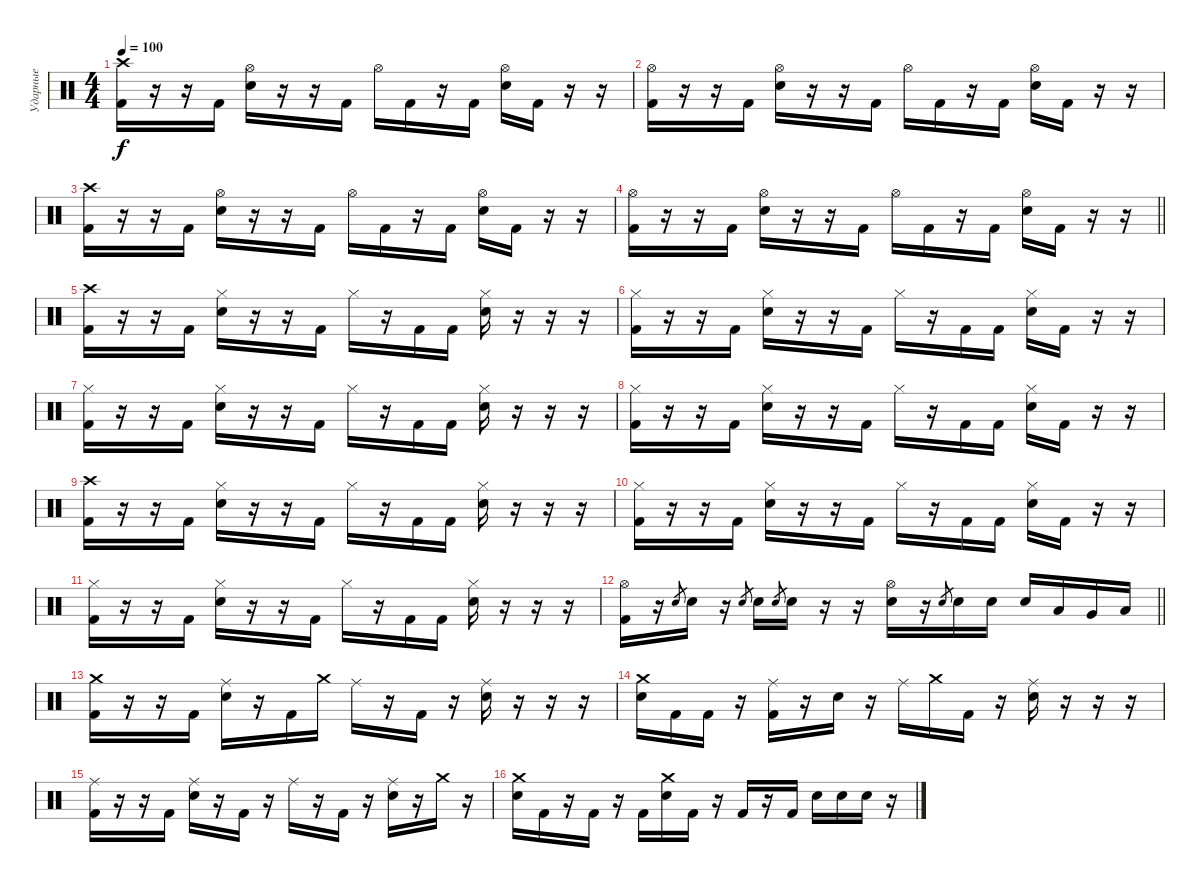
\track ("Ударные" "Ударные") {instrument percussion}
\staff {score}
\articulation defaults
\ts (4 4)
\tempo 100
\clef neutral
\ks c
("Crash high (hit)" "Kick (hit) 2").16{dy f} r.16 r.16 "Kick (hit) 2".16 ("Hi-Hat (open)" "Electric Snare (hit)").16 r.16 r.16 "Kick (hit) 2".16 "Hi-Hat (open)".16 "Kick (hit) 2".16 r.16 "Kick (hit) 2".16 ("Hi-Hat (open)" "Electric Snare (hit)").16 "Kick (hit) 2".16 r.16 r.16 |
("Hi-Hat (open)" "Kick (hit) 2").16 r.16 r.16 "Kick (hit) 2".16 ("Hi-Hat (open)" "Electric Snare (hit)").16 r.16 r.16 "Kick (hit) 2".16 "Hi-Hat (open)".16 "Kick (hit) 2".16 r.16 "Kick (hit) 2".16 ("Hi-Hat (open)" "Electric Snare (hit)").16 "Kick (hit) 2".16 r.16 r.16 |
("Crash high (hit)" "Kick (hit) 2").16 r.16 r.16 "Kick (hit) 2".16 ("Hi-Hat (open)" "Electric Snare (hit)").16 r.16 r.16 "Kick (hit) 2".16 "Hi-Hat (open)".16 "Kick (hit) 2".16 r.16 "Kick (hit) 2".16 ("Hi-Hat (open)" "Electric Snare (hit)").16 "Kick (hit) 2".16 r.16 r.16 |
\barLineRight lightlight
("Hi-Hat (open)" "Kick (hit) 2").16 r.16 r.16 "Kick (hit) 2".16 ("Hi-Hat (open)" "Electric Snare (hit)").16 r.16 r.16 "Kick (hit) 2".16 "Hi-Hat (open)".16 "Kick (hit) 2".16 r.16 "Kick (hit) 2".16 ("Hi-Hat (open)" "Electric Snare (hit)").16 "Kick (hit) 2".16 r.16 r.16 |
("Crash high (hit)" "Kick (hit) 2").16 r.16 r.16 "Kick (hit) 2".16 ("Hi-Hat (closed)" "Electric Snare (hit)").16 r.16 r.16 "Kick (hit) 2".16 "Hi-Hat (closed)".16 r.16 "Kick (hit) 2".16 "Kick (hit) 2".16 ("Hi-Hat (closed)" "Electric Snare (hit)").16 r.16 r.16 r.16 |
("Hi-Hat (closed)" "Kick (hit) 2").16 r.16 r.16 "Kick (hit) 2".16 ("Hi-Hat (closed)" "Electric Snare (hit)").16 r.16 r.16 "Kick (hit) 2".16 "Hi-Hat (closed)".16 r.16 "Kick (hit) 2".16 "Kick (hit) 2".16 ("Hi-Hat (closed)" "Electric Snare (hit)").16 "Kick (hit) 2".16 r.16 r.16 |
("Hi-Hat (closed)" "Kick (hit) 2").16 r.16 r.16 "Kick (hit) 2".16 ("Hi-Hat (closed)" "Electric Snare (hit)").16 r.16 r.16 "Kick (hit) 2".16 "Hi-Hat (closed)".16 r.16 "Kick (hit) 2".16 "Kick (hit) 2".16 ("Hi-Hat (closed)" "Electric Snare (hit)").16 r.16 r.16 r.16 |
("Hi-Hat (closed)" "Kick (hit) 2").16 r.16 r.16 "Kick (hit) 2".16 ("Hi-Hat (closed)" "Electric Snare (hit)").16 r.16 r.16 "Kick (hit) 2".16 "Hi-Hat (closed)".16 r.16 "Kick (hit) 2".16 "Kick (hit) 2".16 ("Hi-Hat (closed)" "Electric Snare (hit)").16 "Kick (hit) 2".16 r.16 r.16 |
("Crash high (hit)" "Kick (hit) 2").16 r.16 r.16 "Kick (hit) 2".16 ("Hi-Hat (closed)" "Electric Snare (hit)").16 r.16 r.16 "Kick (hit) 2".16 "Hi-Hat (closed)".16 r.16 "Kick (hit) 2".16 "Kick (hit) 2".16 ("Hi-Hat (closed)" "Electric Snare (hit)").16 r.16 r.16 r.16 |
("Hi-Hat (closed)" "Kick (hit) 2").16 r.16 r.16 "Kick (hit) 2".16 ("Hi-Hat (closed)" "Electric Snare (hit)").16 r.16 r.16 "Kick (hit) 2".16 "Hi-Hat (closed)".16 r.16 "Kick (hit) 2".16 "Kick (hit) 2".16 ("Hi-Hat (closed)" "Electric Snare (hit)").16 "Kick (hit) 2".16 r.16 r.16 |
("Hi-Hat (closed)" "Kick (hit) 2").16 r.16 r.16 "Kick (hit) 2".16 ("Hi-Hat (closed)" "Electric Snare (hit)").16 r.16 r.16 "Kick (hit) 2".16 "Hi-Hat (closed)".16 r.16 "Kick (hit) 2".16 "Kick (hit) 2".16 ("Hi-Hat (closed)" "Electric Snare (hit)").16 r.16 r.16 r.16 |
\barLineRight lightlight
("Hi-Hat (open)" "Kick (hit) 2").16 r.16 "Electric Snare (hit)".8{gr} "Electric Snare (hit)".16 r.16 "Electric Snare (hit)".8{gr} "Electric Snare (hit)".16 "Electric Snare (hit)".8{gr} "Electric Snare (hit)".16 r.16 r.16 ("Hi-Hat (open)" "Electric Snare (hit)").16 r.16 "Electric Snare (hit)".8{gr} "Electric Snare (hit)".16 "Electric Snare (hit)".16 "Electric Snare (hit)".16 "Low Tom (hit)".16 "Very Low Tom (hit)".16 "Low Floor Tom (hit)".16 |
("Crash medium (hit)" "Kick (hit) 2").16 r.16 r.16 "Kick (hit) 2".16 ("Ride (middle)" "Electric Snare (hit)").16 r.16 "Kick (hit) 2".16 "Crash medium (hit)".16 "Ride (middle)".16 r.16 "Kick (hit) 2".16 r.16 ("Ride (middle)" "Electric Snare (hit)").16 r.16 r.16 r.16 |
("Crash medium (hit)" "Electric Snare (hit)").16 "Kick (hit) 2".16 "Kick (hit) 2".16 r.16 ("Ride (middle)" "Kick (hit) 2").16 r.16 "Electric Snare (hit)".16 r.16 "Ride (middle)".16 "Crash medium (hit)".16 "Kick (hit) 2".16 r.16 ("Ride (middle)" "Electric Snare (hit)").16 r.16 r.16 r.16 |
("Ride (middle)" "Kick (hit) 2").16 r.16 r.16 "Kick (hit) 2".16 ("Ride (middle)" "Electric Snare (hit)").16 r.16 "Kick (hit) 2".16 r.16 "Ride (middle)".16 r.16 "Kick (hit) 2".16 r.16 ("Ride (middle)" "Electric Snare (hit)").16 r.16 "Crash medium (hit)".16 r.16 |
("Crash medium (hit)" "Electric Snare (hit)").16 "Kick (hit) 2".16 r.16 "Kick (hit) 2".16 r.16 "Kick (hit) 2".16 ("Crash medium (hit)" "Electric Snare (hit)").16 "Kick (hit) 2".16 r.16 "Kick (hit) 2".16 r.16 "Kick (hit) 2".16 "Electric Snare (hit)".16 "Electric Snare (hit)".16 "Electric Snare (hit)".16 r.16
